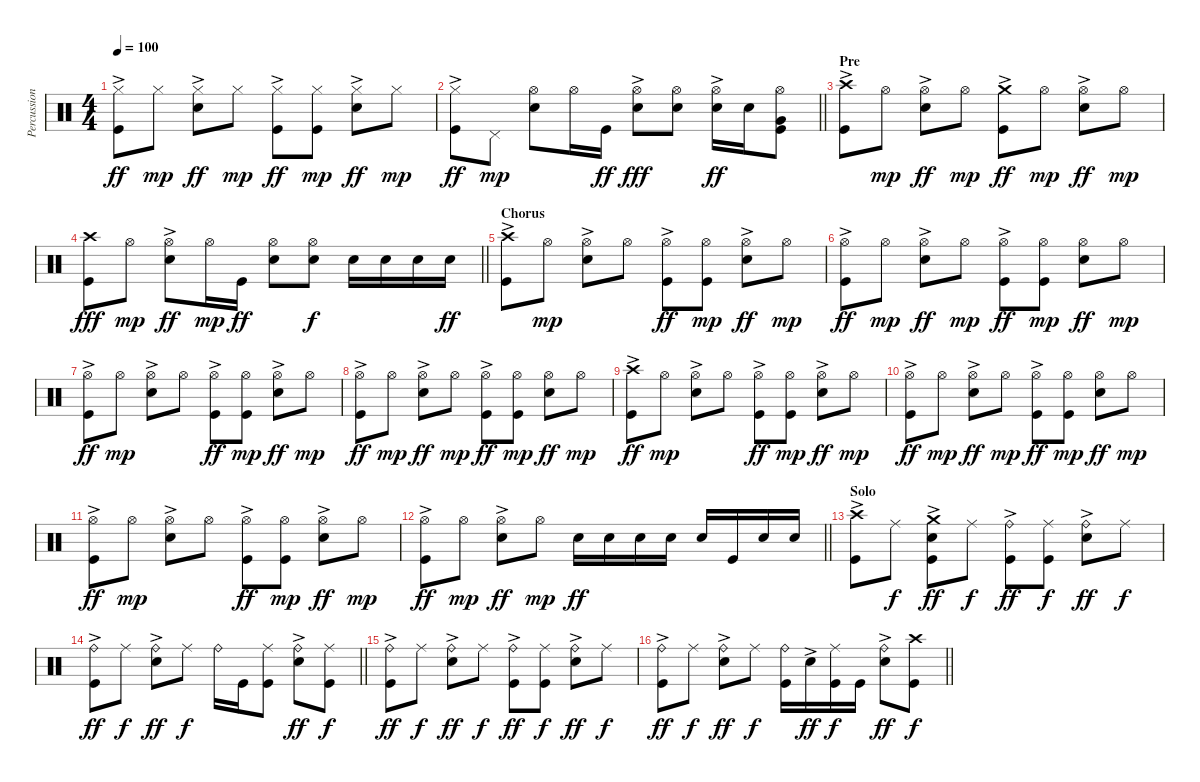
\track ("Percussions" "Percussion") {instrument percussion}
\staff {score}
\articulation defaults
\ts (4 4)
\tempo 100
\clef neutral
\ks c
("Hi-Hat (closed)"{ac} "Kick (hit)").8{dy ff} "Hi-Hat (closed)".8{dy mp} ("Hi-Hat (closed)"{ac} "Snare (hit) 2").8{dy ff} "Hi-Hat (closed)".8{dy mp} ("Hi-Hat (closed)"{ac} "Kick (hit)").8{dy ff} ("Hi-Hat (closed)" "Kick (hit)").8{dy mp} ("Hi-Hat (closed)"{ac} "Snare (hit) 2").8{dy ff} "Hi-Hat (closed)".8{dy mp} |
\barLineRight lightlight
("Hi-Hat (closed)"{ac} "Kick (hit)").8{dy ff} "Pedal Hi-Hat (hit)".8{dy mp} ("Hi-Hat (open)" "Snare (hit) 2").8 "Hi-Hat (open)".16 "Kick (hit)".16{dy ff} ("Hi-Hat (open)"{ac} "Snare (hit) 2").8{dy fff} ("Hi-Hat (open)" "Snare (hit) 2").8 ("Hi-Hat (open)"{ac} "Snare (hit) 2").16{dy ff} "Snare (hit) 2".16 ("Hi-Hat (open)" "Very Low Tom (hit)" "Kick (hit)").8 |
\section ("" "Pre")
("Crash high (hit)"{ac} "Kick (hit)").8 "Hi-Hat (open)".8{dy mp} ("Hi-Hat (open)"{ac} "Snare (hit) 2").8{dy ff} "Hi-Hat (open)".8{dy mp} ("Crash medium (hit)"{ac} "Kick (hit)").8{dy ff} "Hi-Hat (open)".8{dy mp} ("Hi-Hat (open)"{ac} "Snare (hit) 2").8{dy ff} "Hi-Hat (open)".8{dy mp} |
\barLineRight lightlight
("Crash high (hit)" "Kick (hit)").8{dy fff} "Hi-Hat (open)".8{dy mp} ("Hi-Hat (open)"{ac} "Snare (hit) 2").8{dy ff} "Hi-Hat (open)".16{dy mp} "Kick (hit)".16{dy ff} ("Hi-Hat (open)" "Snare (hit) 2").8 ("Hi-Hat (open)" "Snare (hit) 2").8{dy f} "Snare (hit) 2".16 "Snare (hit) 2".16 "Snare (hit) 2".16 "Snare (hit) 2".16{dy ff} |
\section ("" "Chorus")
("Crash high (hit)"{ac} "Kick (hit)").8 "Hi-Hat (open)".8{dy mp} ("Hi-Hat (open)"{ac} "Snare (hit) 2").8 "Hi-Hat (open)".8 ("Hi-Hat (open)"{ac} "Kick (hit)").8{dy ff} ("Hi-Hat (open)" "Kick (hit)").8{dy mp} ("Hi-Hat (open)"{ac} "Snare (hit) 2").8{dy ff} "Hi-Hat (open)".8{dy mp} |
("Hi-Hat (open)"{ac} "Kick (hit)").8{dy ff} "Hi-Hat (open)".8{dy mp} ("Hi-Hat (open)"{ac} "Snare (hit) 2").8{dy ff} "Hi-Hat (open)".8{dy mp} ("Hi-Hat (open)"{ac} "Kick (hit)").8{dy ff} ("Hi-Hat (open)" "Kick (hit)").8{dy mp} ("Hi-Hat (open)" "Snare (hit) 2").8{dy ff} "Hi-Hat (open)".8{dy mp} |
("Hi-Hat (open)"{ac} "Kick (hit)").8{dy ff} "Hi-Hat (open)".8{dy mp} ("Hi-Hat (open)"{ac} "Snare (hit) 2").8 "Hi-Hat (open)".8 ("Hi-Hat (open)"{ac} "Kick (hit)").8{dy ff} ("Hi-Hat (open)" "Kick (hit)").8{dy mp} ("Hi-Hat (open)"{ac} "Snare (hit) 2").8{dy ff} "Hi-Hat (open)".8{dy mp} |
("Hi-Hat (open)"{ac} "Kick (hit)").8{dy ff} "Hi-Hat (open)".8{dy mp} ("Hi-Hat (open)"{ac} "Snare (hit) 2").8{dy ff} "Hi-Hat (open)".8{dy mp} ("Hi-Hat (open)"{ac} "Kick (hit)").8{dy ff} ("Hi-Hat (open)" "Kick (hit)").8{dy mp} ("Hi-Hat (open)" "Snare (hit) 2").8{dy ff} "Hi-Hat (open)".8{dy mp} |
("Crash high (hit)"{ac} "Kick (hit)").8{dy ff} "Hi-Hat (open)".8{dy mp} ("Hi-Hat (open)"{ac} "Snare (hit) 2").8 "Hi-Hat (open)".8 ("Hi-Hat (open)"{ac} "Kick (hit)").8{dy ff} ("Hi-Hat (open)" "Kick (hit)").8{dy mp} ("Hi-Hat (open)"{ac} "Snare (hit) 2").8{dy ff} "Hi-Hat (open)".8{dy mp} |
("Hi-Hat (open)"{ac} "Kick (hit)").8{dy ff} "Hi-Hat (open)".8{dy mp} ("Hi-Hat (open)"{ac} "Snare (hit) 2").8{dy ff} "Hi-Hat (open)".8{dy mp} ("Hi-Hat (open)"{ac} "Kick (hit)").8{dy ff} ("Hi-Hat (open)" "Kick (hit)").8{dy mp} ("Hi-Hat (open)" "Snare (hit) 2").8{dy ff} "Hi-Hat (open)".8{dy mp} |
("Hi-Hat (open)"{ac} "Kick (hit)").8{dy ff} "Hi-Hat (open)".8{dy mp} ("Hi-Hat (open)"{ac} "Snare (hit) 2").8 "Hi-Hat (open)".8 ("Hi-Hat (open)"{ac} "Kick (hit)").8{dy ff} ("Hi-Hat (open)" "Kick (hit)").8{dy mp} ("Hi-Hat (open)"{ac} "Snare (hit) 2").8{dy ff} "Hi-Hat (open)".8{dy mp} |
\barLineRight lightlight
("Hi-Hat (open)"{ac} "Kick (hit)").8{dy ff} "Hi-Hat (open)".8{dy mp} ("Hi-Hat (open)"{ac} "Snare (hit) 2").8{dy ff} "Hi-Hat (open)".8{dy mp} "Snare (hit) 2".16{dy ff} "Snare (hit) 2".16 "Snare (hit) 2".16 "Snare (hit) 2".16 "Snare (hit) 2".16 "Kick (hit)".16 "Snare (hit) 2".16 "Snare (hit) 2".16 |
\section ("" "Solo")
("Crash high (hit)"{ac} "Kick (hit)").8 "Ride (middle)".8{dy f} ("Crash medium (hit)"{ac} "Snare (hit) 2"{ac} "Kick (hit)").8{dy ff} "Ride (middle)".8{dy f} ("Ride (bell)"{ac} "Kick (hit)").8{dy ff} ("Ride (middle)" "Kick (hit)").8{dy f} ("Ride (bell)"{ac} "Snare (hit) 2"{ac}).8{dy ff} "Ride (middle)".8{dy f} |
\barLineRight lightlight
("Ride (bell)"{ac} "Kick (hit)").8{dy ff} "Ride (middle)".8{dy f} ("Ride (bell)"{ac} "Snare (hit) 2").8{dy ff} "Ride (middle)".8{dy f} "Ride (bell)".16 "Kick (hit)".16 ("Ride (middle)" "Kick (hit)").8 ("Ride (bell)" "Snare (hit) 2"{ac}).8{dy ff} ("Ride (middle)" "Kick (hit)").8{dy f} |
("Ride (bell)"{ac} "Kick (hit)").8{dy ff} "Ride (middle)".8{dy f} ("Ride (bell)"{ac} "Snare (hit) 2"{ac}).8{dy ff} "Ride (middle)".8{dy f} ("Ride (bell)"{ac} "Kick (hit)").8{dy ff} ("Ride (middle)" "Kick (hit)").8{dy f} ("Ride (bell)"{ac} "Snare (hit) 2"{ac}).8{dy ff} "Ride (middle)".8{dy f} |
\barLineRight lightlight
("Ride (bell)"{ac} "Kick (hit)").8{dy ff} "Ride (middle)".8{dy f} ("Ride (bell)"{ac} "Snare (hit) 2").8{dy ff} "Ride (middle)".8{dy f} ("Ride (bell)" "Kick (hit)").16 "Snare (hit) 2"{ac}.16{dy ff} ("Ride (middle)" "Kick (hit)").16{dy f} "Kick (hit)".16 ("Ride (bell)" "Snare (hit) 2"{ac}).8{dy ff} ("Crash high (hit)" "Kick (hit)").8{dy f}
